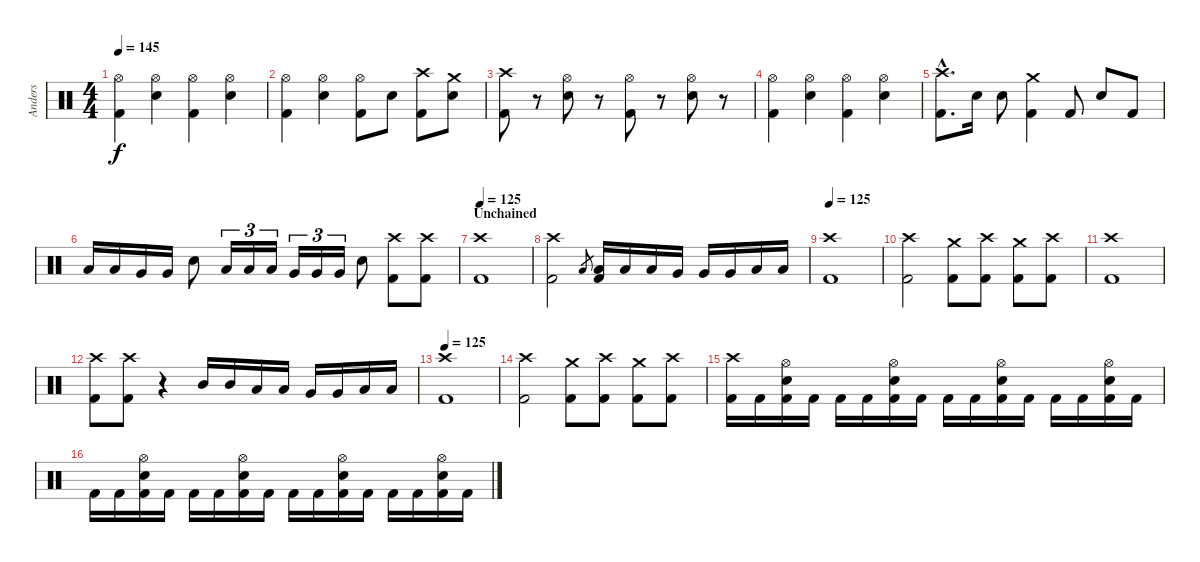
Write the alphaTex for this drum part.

\track ("Anders" "Anders") {instrument percussion}
\staff {score}
\articulation defaults
\ts (4 4)
\tempo 145
\clef neutral
\ks c
("Hi-Hat (open)" "Kick (hit) 2").4{dy f} ("Hi-Hat (open)" "Electric Snare (hit)").4 ("Hi-Hat (open)" "Kick (hit) 2").4 ("Hi-Hat (open)" "Electric Snare (hit)").4 |
("Hi-Hat (open)" "Kick (hit) 2").4 ("Hi-Hat (open)" "Electric Snare (hit)").4 ("Hi-Hat (open)" "Kick (hit) 2").8 "Electric Snare (hit)".8 ("Crash high (hit)" "Kick (hit) 2").8 ("Crash medium (hit)" "Electric Snare (hit)").8 |
("Crash high (hit)" "Kick (hit) 2").8 r.8 ("Hi-Hat (open)" "Electric Snare (hit)").8 r.8 ("Hi-Hat (open)" "Kick (hit) 2").8 r.8 ("Hi-Hat (open)" "Electric Snare (hit)").8 r.8 |
("Hi-Hat (open)" "Kick (hit) 2").4 ("Hi-Hat (open)" "Electric Snare (hit)").4 ("Hi-Hat (open)" "Kick (hit) 2").4 ("Hi-Hat (open)" "Electric Snare (hit)").4 |
("Crash high (hit)"{hac} "Kick (hit) 2"{hac}).8{d} "Electric Snare (hit)".16 "Electric Snare (hit)".8 ("Crash medium (hit)" "Kick (hit) 2").4 "Kick (hit) 2".8 "Electric Snare (hit)".8 "Kick (hit) 2".8 |
"Low Tom (hit)".16 "Low Tom (hit)".16 "Very Low Tom (hit)".16 "Very Low Tom (hit)".16 "Electric Snare (hit)".8 "Low Tom (hit)".16{tu (3 2)} "Low Tom (hit)".16{tu (3 2)} "Low Tom (hit)".16{tu (3 2)} "Very Low Tom (hit)".16{tu (3 2)} "Very Low Tom (hit)".16{tu (3 2)} "Very Low Tom (hit)".16{tu (3 2)} "Electric Snare (hit)".8 ("Crash high (hit)" "Kick (hit) 2").8 ("Crash high (hit)" "Kick (hit) 2").8 |
\section ("" "Unchained")
\tempo 125
("Crash high (hit)" "Kick (hit) 2").1 |
("Crash high (hit)" "Kick (hit) 2").2 "Low Tom (hit)".8{gr} ("Low Tom (hit)" "Kick (hit) 2").16 "Low Tom (hit)".16 "Low Tom (hit)".16 "Very Low Tom (hit)".16 "Very Low Tom (hit)".16 "Very Low Tom (hit)".16 "Low Floor Tom (hit)".16 "Low Floor Tom (hit)".16 |
\tempo 125
("Crash high (hit)" "Kick (hit) 2").1 |
("Crash high (hit)" "Kick (hit) 2").2 ("Crash medium (hit)" "Kick (hit) 2").8 ("Crash high (hit)" "Kick (hit) 2").8 ("Crash medium (hit)" "Kick (hit) 2").8 ("Crash high (hit)" "Kick (hit) 2").8 |
("Crash high (hit)" "Kick (hit) 2").1 |
("Crash high (hit)" "Kick (hit) 2").8 ("Crash high (hit)" "Kick (hit) 2").8 r.4 "Mid Tom (hit)".16 "Mid Tom (hit)".16 "Low Tom (hit)".16 "Low Tom (hit)".16 "Very Low Tom (hit)".16 "Very Low Tom (hit)".16 "Low Floor Tom (hit)".16 "Low Floor Tom (hit)".16 |
\tempo 125
("Crash high (hit)" "Kick (hit) 2").1 |
("Crash high (hit)" "Kick (hit) 2").2 ("Crash medium (hit)" "Kick (hit) 2").8 ("Crash high (hit)" "Kick (hit) 2").8 ("Crash medium (hit)" "Kick (hit) 2").8 ("Crash high (hit)" "Kick (hit) 2").8 |
("Crash high (hit)" "Kick (hit) 2").16 "Kick (hit) 2".16 ("Hi-Hat (open)" "Electric Snare (hit)" "Kick (hit) 2").16 "Kick (hit) 2".16 "Kick (hit) 2".16 "Kick (hit) 2".16 ("Hi-Hat (open)" "Electric Snare (hit)" "Kick (hit) 2").16 "Kick (hit) 2".16 "Kick (hit) 2".16 "Kick (hit) 2".16 ("Hi-Hat (open)" "Electric Snare (hit)" "Kick (hit) 2").16 "Kick (hit) 2".16 "Kick (hit) 2".16 "Kick (hit) 2".16 ("Hi-Hat (open)" "Electric Snare (hit)" "Kick (hit) 2").16 "Kick (hit) 2".16 |
"Kick (hit) 2".16 "Kick (hit) 2".16 ("Hi-Hat (open)" "Electric Snare (hit)" "Kick (hit) 2").16 "Kick (hit) 2".16 "Kick (hit) 2".16 "Kick (hit) 2".16 ("Hi-Hat (open)" "Electric Snare (hit)" "Kick (hit) 2").16 "Kick (hit) 2".16 "Kick (hit) 2".16 "Kick (hit) 2".16 ("Hi-Hat (open)" "Electric Snare (hit)" "Kick (hit) 2").16 "Kick (hit) 2".16 "Kick (hit) 2".16 "Kick (hit) 2".16 ("Hi-Hat (open)" "Electric Snare (hit)" "Kick (hit) 2").16 "Kick (hit) 2".16
